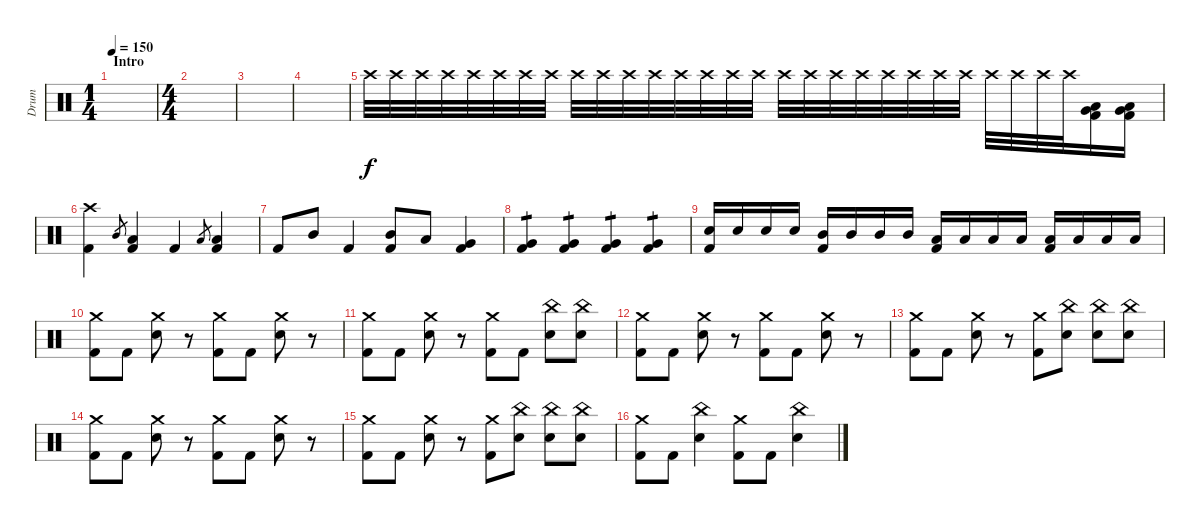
\track ("Drum" "Drum") {instrument percussion}
\staff {score}
\articulation defaults
\ts (1 4)
\section ("" "Intro")
\tempo 150
\clef neutral
\ks c
|
\ts (4 4)
|
|
|
"Crash high (hit)".32{volume 16} "Crash high (hit)".32 "Crash high (hit)".32 "Crash high (hit)".32 "Crash high (hit)".32 "Crash high (hit)".32 "Crash high (hit)".32 "Crash high (hit)".32 "Crash high (hit)".32 "Crash high (hit)".32 "Crash high (hit)".32 "Crash high (hit)".32 "Crash high (hit)".32 "Crash high (hit)".32 "Crash high (hit)".32 "Crash high (hit)".32 "Crash high (hit)".32 "Crash high (hit)".32 "Crash high (hit)".32 "Crash high (hit)".32 "Crash high (hit)".32 "Crash high (hit)".32 "Crash high (hit)".32 "Crash high (hit)".32 "Crash high (hit)".32 "Crash high (hit)".32 "Crash high (hit)".32 "Crash high (hit)".32 ("Kick (hit) 2" "Low Floor Tom (hit)" "Very Low Tom (hit)").16 ("Kick (hit) 2" "Low Floor Tom (hit)" "Very Low Tom (hit)").16 |
("Kick (hit) 2" "Crash high (hit)").4 "Mid Tom (hit)".8{gr} ("Kick (hit) 2" "Low Tom (hit)").4 "Kick (hit) 2".4 "Low Tom (hit)".8{gr} ("Kick (hit) 2" "Low Tom (hit)").4 |
"Kick (hit) 2".8 "Mid Tom (hit)".8 "Kick (hit) 2".4 ("Kick (hit) 2" "Mid Tom (hit)").8 "Low Tom (hit)".8 ("Kick (hit) 2" "Very Low Tom (hit)").4 |
("Kick (hit) 2" "Very Low Tom (hit)").4{tp 1} ("Kick (hit) 2" "Very Low Tom (hit)").4{tp 1} ("Kick (hit) 2" "Very Low Tom (hit)").4{tp 1} ("Kick (hit) 2" "Very Low Tom (hit)").4{tp 1} |
("Electric Snare (hit)" "Kick (hit) 2").16 "Electric Snare (hit)".16 "Electric Snare (hit)".16 "Electric Snare (hit)".16 ("Mid Tom (hit)" "Kick (hit) 2").16 "Mid Tom (hit)".16 "Mid Tom (hit)".16 "Mid Tom (hit)".16 ("Low Tom (hit)" "Kick (hit) 2").16 "Low Tom (hit)".16 "Low Tom (hit)".16 "Low Tom (hit)".16 ("Low Floor Tom (hit)" "Kick (hit) 2").16 "Low Floor Tom (hit)".16 "Low Floor Tom (hit)".16 "Low Floor Tom (hit)".16 |
("Kick (hit) 2" "Crash medium (hit)").8 "Kick (hit) 2".8 ("Electric Snare (hit)" "Crash medium (hit)").8 r.8 ("Kick (hit) 2" "Crash medium (hit)").8 "Kick (hit) 2".8 ("Electric Snare (hit)" "Crash medium (hit)").8 r.8 |
("Kick (hit) 2" "Crash medium (hit)").8 "Kick (hit) 2".8 ("Electric Snare (hit)" "Crash medium (hit)").8 r.8 ("Kick (hit) 2" "Crash medium (hit)").8 "Kick (hit) 2".8 ("Electric Snare (hit)" "China (hit)").8 ("Electric Snare (hit)" "China (hit)").8 |
("Kick (hit) 2" "Crash medium (hit)").8 "Kick (hit) 2".8 ("Electric Snare (hit)" "Crash medium (hit)").8 r.8 ("Kick (hit) 2" "Crash medium (hit)").8 "Kick (hit) 2".8 ("Electric Snare (hit)" "Crash medium (hit)").8 r.8 |
("Kick (hit) 2" "Crash medium (hit)").8 "Kick (hit) 2".8 ("Electric Snare (hit)" "Crash medium (hit)").8 r.8 ("Kick (hit) 2" "Crash medium (hit)").8 ("Electric Snare (hit)" "China (hit)").8 ("Electric Snare (hit)" "China (hit)").8 ("Electric Snare (hit)" "China (hit)").8 |
("Kick (hit) 2" "Crash medium (hit)").8 "Kick (hit) 2".8 ("Electric Snare (hit)" "Crash medium (hit)").8 r.8 ("Kick (hit) 2" "Crash medium (hit)").8 "Kick (hit) 2".8 ("Electric Snare (hit)" "Crash medium (hit)").8 r.8 |
("Kick (hit) 2" "Crash medium (hit)").8 "Kick (hit) 2".8 ("Electric Snare (hit)" "Crash medium (hit)").8 r.8 ("Kick (hit) 2" "Crash medium (hit)").8 ("Electric Snare (hit)" "China (hit)").8 ("Electric Snare (hit)" "China (hit)").8 ("Electric Snare (hit)" "China (hit)").8 |
("Kick (hit) 2" "Crash medium (hit)").8 "Kick (hit) 2".8 ("Electric Snare (hit)" "China (hit)").4 ("Kick (hit) 2" "Crash medium (hit)").8 "Kick (hit) 2".8 ("Electric Snare (hit)" "China (hit)").4
